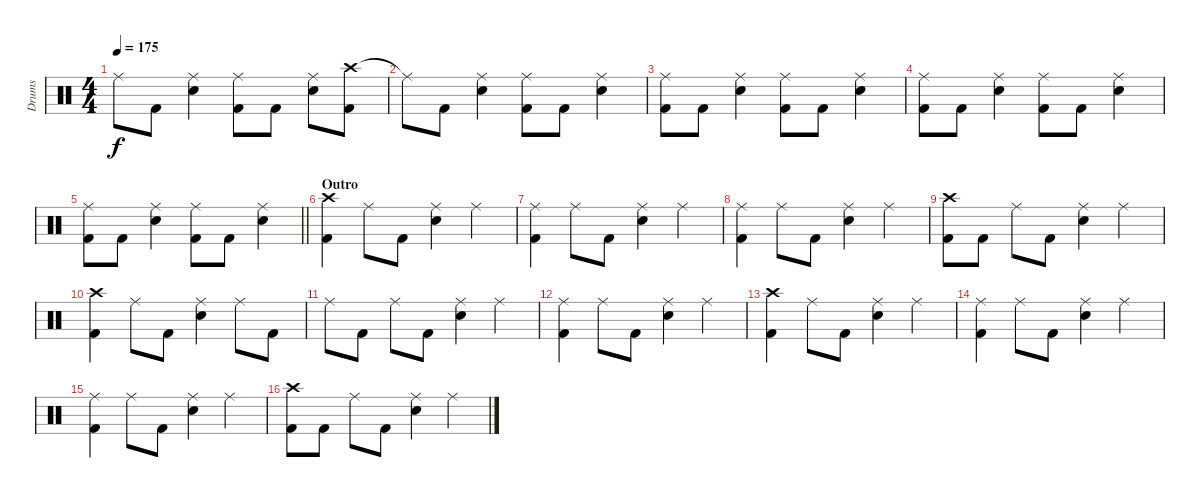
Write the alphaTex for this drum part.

\track ("Drums" "Drums") {instrument percussion}
\staff {score}
\articulation defaults
\ts (4 4)
\tempo 175
\clef neutral
\ks c "Ride (middle)".8{dy f} "Kick (hit) 2".8
("Ride (middle)" "Snare (hit) 2").4 ("Ride (middle)" "Kick (hit) 2").8 "Kick (hit) 2".8 ("Ride (middle)" "Snare (hit) 2").8 ("Crash high (hit)" "Kick (hit) 2").8 |
"Ride (middle)"{t}.8 "Kick (hit) 2".8 ("Ride (middle)" "Snare (hit) 2").4 ("Ride (middle)" "Kick (hit) 2").8 "Kick (hit) 2".8 ("Ride (middle)" "Snare (hit) 2").4 |
("Ride (middle)" "Kick (hit) 2").8 "Kick (hit) 2".8 ("Ride (middle)" "Snare (hit) 2").4 ("Ride (middle)" "Kick (hit) 2").8 "Kick (hit) 2".8 ("Ride (middle)" "Snare (hit) 2").4 |
("Ride (middle)" "Kick (hit) 2").8 "Kick (hit) 2".8 ("Ride (middle)" "Snare (hit) 2").4 ("Ride (middle)" "Kick (hit) 2").8 "Kick (hit) 2".8 ("Ride (middle)" "Snare (hit) 2").4 |
\barLineRight lightlight
("Ride (middle)" "Kick (hit) 2").8 "Kick (hit) 2".8 ("Ride (middle)" "Snare (hit) 2").4 ("Ride (middle)" "Kick (hit) 2").8 "Kick (hit) 2".8 ("Ride (middle)" "Snare (hit) 2").4 |
\section ("" "Outro")
("Crash high (hit)" "Kick (hit) 2").4 "Ride (middle)".8 "Kick (hit) 2".8 ("Ride (middle)" "Snare (hit) 2").4 "Ride (middle)".4 |
("Ride (middle)" "Kick (hit) 2").4 "Ride (middle)".8 "Kick (hit) 2".8 ("Ride (middle)" "Snare (hit) 2").4 "Ride (middle)".4 |
("Ride (middle)" "Kick (hit) 2").4 "Ride (middle)".8 "Kick (hit) 2".8 ("Ride (middle)" "Snare (hit) 2").4 "Ride (middle)".4 |
("Crash high (hit)" "Kick (hit) 2").8 "Kick (hit) 2".8 "Ride (middle)".8 "Kick (hit) 2".8 ("Ride (middle)" "Snare (hit) 2").4 "Ride (middle)".4 |
("Crash high (hit)" "Kick (hit) 2").4 "Ride (middle)".8 "Kick (hit) 2".8 ("Ride (middle)" "Snare (hit) 2").4 "Ride (middle)".8 "Kick (hit) 2".8 |
"Ride (middle)".8 "Kick (hit) 2".8 "Ride (middle)".8 "Kick (hit) 2".8 ("Ride (middle)" "Snare (hit) 2").4 "Ride (middle)".4 |
("Ride (middle)" "Kick (hit) 2").4 "Ride (middle)".8 "Kick (hit) 2".8 ("Ride (middle)" "Snare (hit) 2").4 "Ride (middle)".4 |
("Crash high (hit)" "Kick (hit) 2").4 "Ride (middle)".8 "Kick (hit) 2".8 ("Ride (middle)" "Snare (hit) 2").4 "Ride (middle)".4 |
("Ride (middle)" "Kick (hit) 2").4 "Ride (middle)".8 "Kick (hit) 2".8 ("Ride (middle)" "Snare (hit) 2").4 "Ride (middle)".4 |
("Ride (middle)" "Kick (hit) 2").4 "Ride (middle)".8 "Kick (hit) 2".8 ("Ride (middle)" "Snare (hit) 2").4 "Ride (middle)".4 |
("Crash high (hit)" "Kick (hit) 2").8 "Kick (hit) 2".8 "Ride (middle)".8 "Kick (hit) 2".8 ("Ride (middle)" "Snare (hit) 2").4 "Ride (middle)".4
